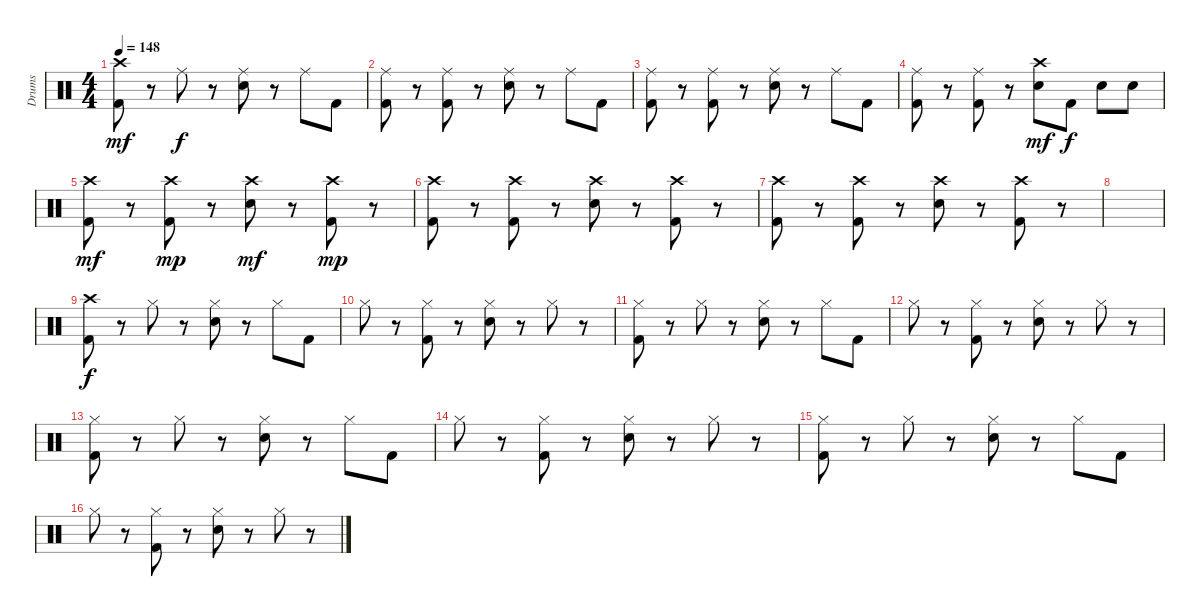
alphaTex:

\track ("Drums" "Drums") {instrument percussion}
\staff {score}
\articulation defaults
\ts (4 4)
\tempo 148
\clef neutral
\ks c
("Crash high (hit)" "Kick (hit) 2").8{dy mf} r.8 "Ride (middle)".8{dy f} r.8 ("Ride (middle)" "Snare (hit) 2").8 r.8 "Ride (middle)".8 "Kick (hit) 2".8 |
("Ride (middle)" "Kick (hit) 2").8 r.8 ("Ride (middle)" "Kick (hit) 2").8 r.8 ("Ride (middle)" "Snare (hit) 2").8 r.8 "Ride (middle)".8 "Kick (hit) 2".8 |
("Ride (middle)" "Kick (hit) 2").8 r.8 ("Ride (middle)" "Kick (hit) 2").8 r.8 ("Ride (middle)" "Snare (hit) 2").8 r.8 "Ride (middle)".8 "Kick (hit) 2".8 |
("Ride (middle)" "Kick (hit) 2").8 r.8 ("Ride (middle)" "Kick (hit) 2").8 r.8 ("Crash high (hit)" "Snare (hit) 2").8{dy mf} "Kick (hit) 2".8{dy f} "Snare (hit) 2".8 "Snare (hit) 2".8 |
("Crash high (hit)" "Kick (hit) 2").8{dy mf} r.8 ("Crash high (hit)" "Kick (hit) 2").8{dy mp} r.8 ("Crash high (hit)" "Snare (hit) 2").8{dy mf} r.8 ("Crash high (hit)" "Kick (hit) 2").8{dy mp} r.8 |
("Crash high (hit)" "Kick (hit) 2").8 r.8 ("Crash high (hit)" "Kick (hit) 2").8 r.8 ("Crash high (hit)" "Snare (hit) 2").8 r.8 ("Crash high (hit)" "Kick (hit) 2").8 r.8 |
("Crash high (hit)" "Kick (hit) 2").8 r.8 ("Crash high (hit)" "Kick (hit) 2").8 r.8 ("Crash high (hit)" "Snare (hit) 2").8 r.8 ("Crash high (hit)" "Kick (hit) 2").8 r.8 |
|
("Crash high (hit)" "Kick (hit) 2").8{dy f} r.8 "Hi-Hat (closed)".8 r.8 ("Hi-Hat (closed)" "Snare (hit) 2").8 r.8 "Hi-Hat (closed)".8 "Kick (hit) 2".8 |
"Hi-Hat (closed)".8 r.8 ("Hi-Hat (closed)" "Kick (hit) 2").8 r.8 ("Hi-Hat (closed)" "Snare (hit) 2").8 r.8 "Hi-Hat (closed)".8 r.8 |
("Hi-Hat (closed)" "Kick (hit) 2").8 r.8 "Hi-Hat (closed)".8 r.8 ("Hi-Hat (closed)" "Snare (hit) 2").8 r.8 "Hi-Hat (closed)".8 "Kick (hit) 2".8 |
"Hi-Hat (closed)".8 r.8 ("Hi-Hat (closed)" "Kick (hit) 2").8 r.8 ("Hi-Hat (closed)" "Snare (hit) 2").8 r.8 "Hi-Hat (closed)".8 r.8 |
("Hi-Hat (closed)" "Kick (hit) 2").8 r.8 "Hi-Hat (closed)".8 r.8 ("Hi-Hat (closed)" "Snare (hit) 2").8 r.8 "Hi-Hat (closed)".8 "Kick (hit) 2".8 |
"Hi-Hat (closed)".8 r.8 ("Hi-Hat (closed)" "Kick (hit) 2").8 r.8 ("Hi-Hat (closed)" "Snare (hit) 2").8 r.8 "Hi-Hat (closed)".8 r.8 |
("Hi-Hat (closed)" "Kick (hit) 2").8 r.8 "Hi-Hat (closed)".8 r.8 ("Hi-Hat (closed)" "Snare (hit) 2").8 r.8 "Hi-Hat (closed)".8 "Kick (hit) 2".8 |
"Hi-Hat (closed)".8 r.8 ("Hi-Hat (closed)" "Kick (hit) 2").8 r.8 ("Hi-Hat (closed)" "Snare (hit) 2").8 r.8 "Hi-Hat (closed)".8 r.8
